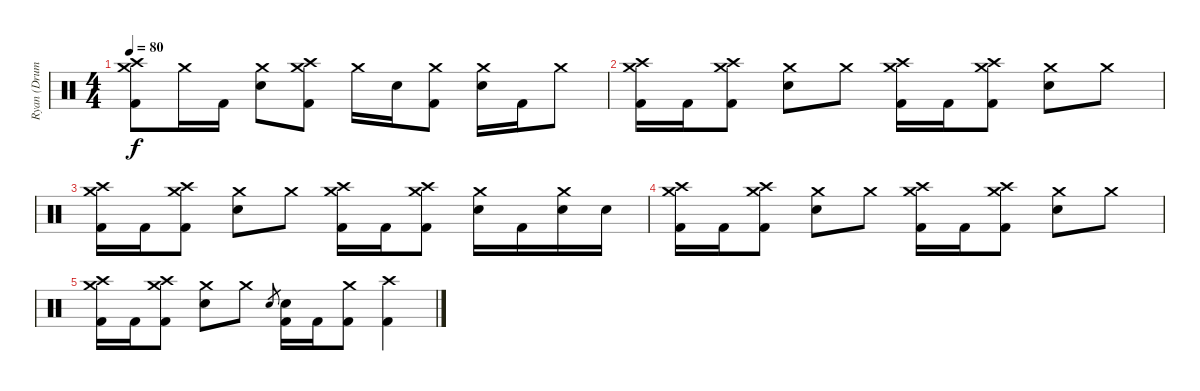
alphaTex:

\track ("Ryan (Drums)" "Ryan (Drum") {instrument percussion}
\staff {score}
\articulation defaults
\ts (4 4)
\tempo 80
\clef neutral
\ks c
("Crash medium (hit)" "Crash high (hit)" "Kick (hit) 2").8{dy f} "Crash medium (hit)".16 "Kick (hit) 2".16 ("Crash medium (hit)" "Electric Snare (hit)").8 ("Crash medium (hit)" "Crash high (hit)" "Kick (hit) 2").8 "Crash medium (hit)".16 "Electric Snare (hit)".16 ("Crash medium (hit)" "Kick (hit) 2").8 ("Crash medium (hit)" "Electric Snare (hit)").16 "Kick (hit) 2".16 "Crash medium (hit)".8 |
("Crash medium (hit)" "Crash high (hit)" "Kick (hit) 2").16 "Kick (hit) 2".16 ("Crash medium (hit)" "Crash high (hit)" "Kick (hit) 2").8 ("Crash medium (hit)" "Electric Snare (hit)").8 "Crash medium (hit)".8 ("Crash medium (hit)" "Crash high (hit)" "Kick (hit) 2").16 "Kick (hit) 2".16 ("Crash medium (hit)" "Crash high (hit)" "Kick (hit) 2").8 ("Crash medium (hit)" "Electric Snare (hit)").8 "Crash medium (hit)".8 |
("Crash medium (hit)" "Crash high (hit)" "Kick (hit) 2").16 "Kick (hit) 2".16 ("Crash medium (hit)" "Crash high (hit)" "Kick (hit) 2").8 ("Crash medium (hit)" "Electric Snare (hit)").8 "Crash medium (hit)".8 ("Crash medium (hit)" "Crash high (hit)" "Kick (hit) 2").16 "Kick (hit) 2".16 ("Crash medium (hit)" "Crash high (hit)" "Kick (hit) 2").8 ("Crash medium (hit)" "Electric Snare (hit)").16 "Kick (hit) 2".16 ("Crash medium (hit)" "Electric Snare (hit)").16 "Electric Snare (hit)".16 |
("Crash medium (hit)" "Crash high (hit)" "Kick (hit) 2").16 "Kick (hit) 2".16 ("Crash medium (hit)" "Crash high (hit)" "Kick (hit) 2").8 ("Crash medium (hit)" "Electric Snare (hit)").8 "Crash medium (hit)".8 ("Crash medium (hit)" "Crash high (hit)" "Kick (hit) 2").16 "Kick (hit) 2".16 ("Crash medium (hit)" "Crash high (hit)" "Kick (hit) 2").8 ("Crash medium (hit)" "Electric Snare (hit)").8 "Crash medium (hit)".8 |
("Crash medium (hit)" "Crash high (hit)" "Kick (hit) 2").16 "Kick (hit) 2".16 ("Crash medium (hit)" "Crash high (hit)" "Kick (hit) 2").8 ("Crash medium (hit)" "Electric Snare (hit)").8 "Crash medium (hit)".8 "Electric Snare (hit)".8{gr} ("Electric Snare (hit)" "Kick (hit) 2").16 "Kick (hit) 2".16 ("Crash medium (hit)" "Kick (hit) 2").8 ("Crash high (hit)" "Kick (hit) 2").4
